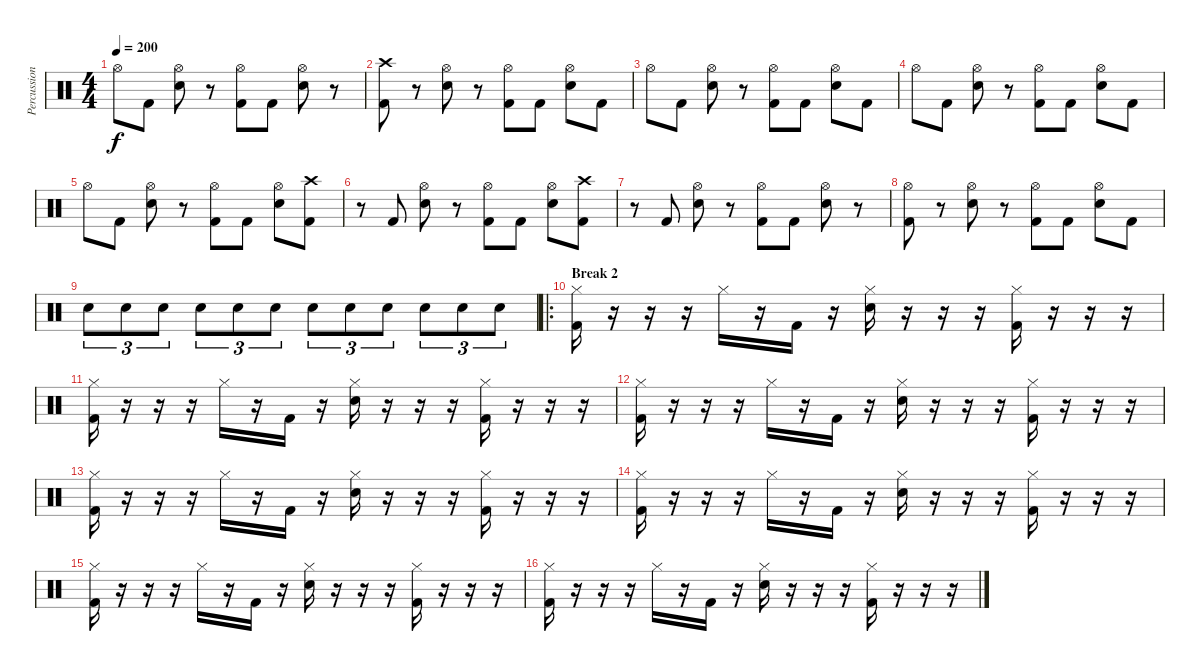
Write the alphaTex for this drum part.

\track ("Percussion" "Percussion") {instrument percussion}
\staff {score}
\articulation defaults
\ts (4 4)
\tempo 200
\clef neutral
\ks c "Hi-Hat (open)".8{dy f} "Kick (hit) 2".8
("Hi-Hat (open)" "Electric Snare (hit)").8 r.8 ("Hi-Hat (open)" "Kick (hit) 2").8 "Kick (hit) 2".8 ("Hi-Hat (open)" "Electric Snare (hit)").8 r.8 |
("Crash high (hit)" "Kick (hit) 2").8 r.8 ("Hi-Hat (open)" "Electric Snare (hit)").8 r.8 ("Hi-Hat (open)" "Kick (hit) 2").8 "Kick (hit) 2".8 ("Hi-Hat (open)" "Electric Snare (hit)").8 "Kick (hit) 2".8 |
"Hi-Hat (open)".8 "Kick (hit) 2".8 ("Hi-Hat (open)" "Electric Snare (hit)").8 r.8 ("Hi-Hat (open)" "Kick (hit) 2").8 "Kick (hit) 2".8 ("Hi-Hat (open)" "Electric Snare (hit)").8 "Kick (hit) 2".8 |
"Hi-Hat (open)".8 "Kick (hit) 2".8 ("Hi-Hat (open)" "Electric Snare (hit)").8 r.8 ("Hi-Hat (open)" "Kick (hit) 2").8 "Kick (hit) 2".8 ("Hi-Hat (open)" "Electric Snare (hit)").8 "Kick (hit) 2".8 |
"Hi-Hat (open)".8 "Kick (hit) 2".8 ("Hi-Hat (open)" "Electric Snare (hit)").8 r.8 ("Hi-Hat (open)" "Kick (hit) 2").8 "Kick (hit) 2".8 ("Hi-Hat (open)" "Electric Snare (hit)").8 ("Crash high (hit)" "Kick (hit) 2").8 |
r.8 "Kick (hit) 2".8 ("Hi-Hat (open)" "Electric Snare (hit)").8 r.8 ("Hi-Hat (open)" "Kick (hit) 2").8 "Kick (hit) 2".8 ("Hi-Hat (open)" "Electric Snare (hit)").8 ("Crash high (hit)" "Kick (hit) 2").8 |
r.8 "Kick (hit) 2".8 ("Hi-Hat (open)" "Electric Snare (hit)").8 r.8 ("Hi-Hat (open)" "Kick (hit) 2").8 "Kick (hit) 2".8 ("Hi-Hat (open)" "Electric Snare (hit)").8 r.8 |
("Hi-Hat (open)" "Kick (hit) 2").8 r.8 ("Hi-Hat (open)" "Electric Snare (hit)").8 r.8 ("Hi-Hat (open)" "Kick (hit) 2").8 "Kick (hit) 2".8 ("Hi-Hat (open)" "Electric Snare (hit)").8 "Kick (hit) 2".8 |
"Electric Snare (hit)".8{tu (3 2)} "Electric Snare (hit)".8{tu (3 2)} "Electric Snare (hit)".8{tu (3 2)} "Electric Snare (hit)".8{tu (3 2)} "Electric Snare (hit)".8{tu (3 2)} "Electric Snare (hit)".8{tu (3 2)} "Electric Snare (hit)".8{tu (3 2)} "Electric Snare (hit)".8{tu (3 2)} "Electric Snare (hit)".8{tu (3 2)} "Electric Snare (hit)".8{tu (3 2)} "Electric Snare (hit)".8{tu (3 2)} "Electric Snare (hit)".8{tu (3 2)} |
\ro
\section ("" "Break 2")
("Hi-Hat (closed)" "Kick (hit) 2").16 r.16 r.16 r.16 "Hi-Hat (closed)".16 r.16 "Kick (hit) 2".16 r.16 ("Hi-Hat (closed)" "Electric Snare (hit)").16 r.16 r.16 r.16 ("Hi-Hat (closed)" "Kick (hit) 2").16 r.16 r.16 r.16 |
("Hi-Hat (closed)" "Kick (hit) 2").16 r.16 r.16 r.16 "Hi-Hat (closed)".16 r.16 "Kick (hit) 2".16 r.16 ("Hi-Hat (closed)" "Electric Snare (hit)").16 r.16 r.16 r.16 ("Hi-Hat (closed)" "Kick (hit) 2").16 r.16 r.16 r.16 |
("Hi-Hat (closed)" "Kick (hit) 2").16 r.16 r.16 r.16 "Hi-Hat (closed)".16 r.16 "Kick (hit) 2".16 r.16 ("Hi-Hat (closed)" "Electric Snare (hit)").16 r.16 r.16 r.16 ("Hi-Hat (closed)" "Kick (hit) 2").16 r.16 r.16 r.16 |
("Hi-Hat (closed)" "Kick (hit) 2").16 r.16 r.16 r.16 "Hi-Hat (closed)".16 r.16 "Kick (hit) 2".16 r.16 ("Hi-Hat (closed)" "Electric Snare (hit)").16 r.16 r.16 r.16 ("Hi-Hat (closed)" "Kick (hit) 2").16 r.16 r.16 r.16 |
("Hi-Hat (closed)" "Kick (hit) 2").16 r.16 r.16 r.16 "Hi-Hat (closed)".16 r.16 "Kick (hit) 2".16 r.16 ("Hi-Hat (closed)" "Electric Snare (hit)").16 r.16 r.16 r.16 ("Hi-Hat (closed)" "Kick (hit) 2").16 r.16 r.16 r.16 |
("Hi-Hat (closed)" "Kick (hit) 2").16 r.16 r.16 r.16 "Hi-Hat (closed)".16 r.16 "Kick (hit) 2".16 r.16 ("Hi-Hat (closed)" "Electric Snare (hit)").16 r.16 r.16 r.16 ("Hi-Hat (closed)" "Kick (hit) 2").16 r.16 r.16 r.16 |
("Hi-Hat (closed)" "Kick (hit) 2").16 r.16 r.16 r.16 "Hi-Hat (closed)".16 r.16 "Kick (hit) 2".16 r.16 ("Hi-Hat (closed)" "Electric Snare (hit)").16 r.16 r.16 r.16 ("Hi-Hat (closed)" "Kick (hit) 2").16 r.16 r.16 r.16
